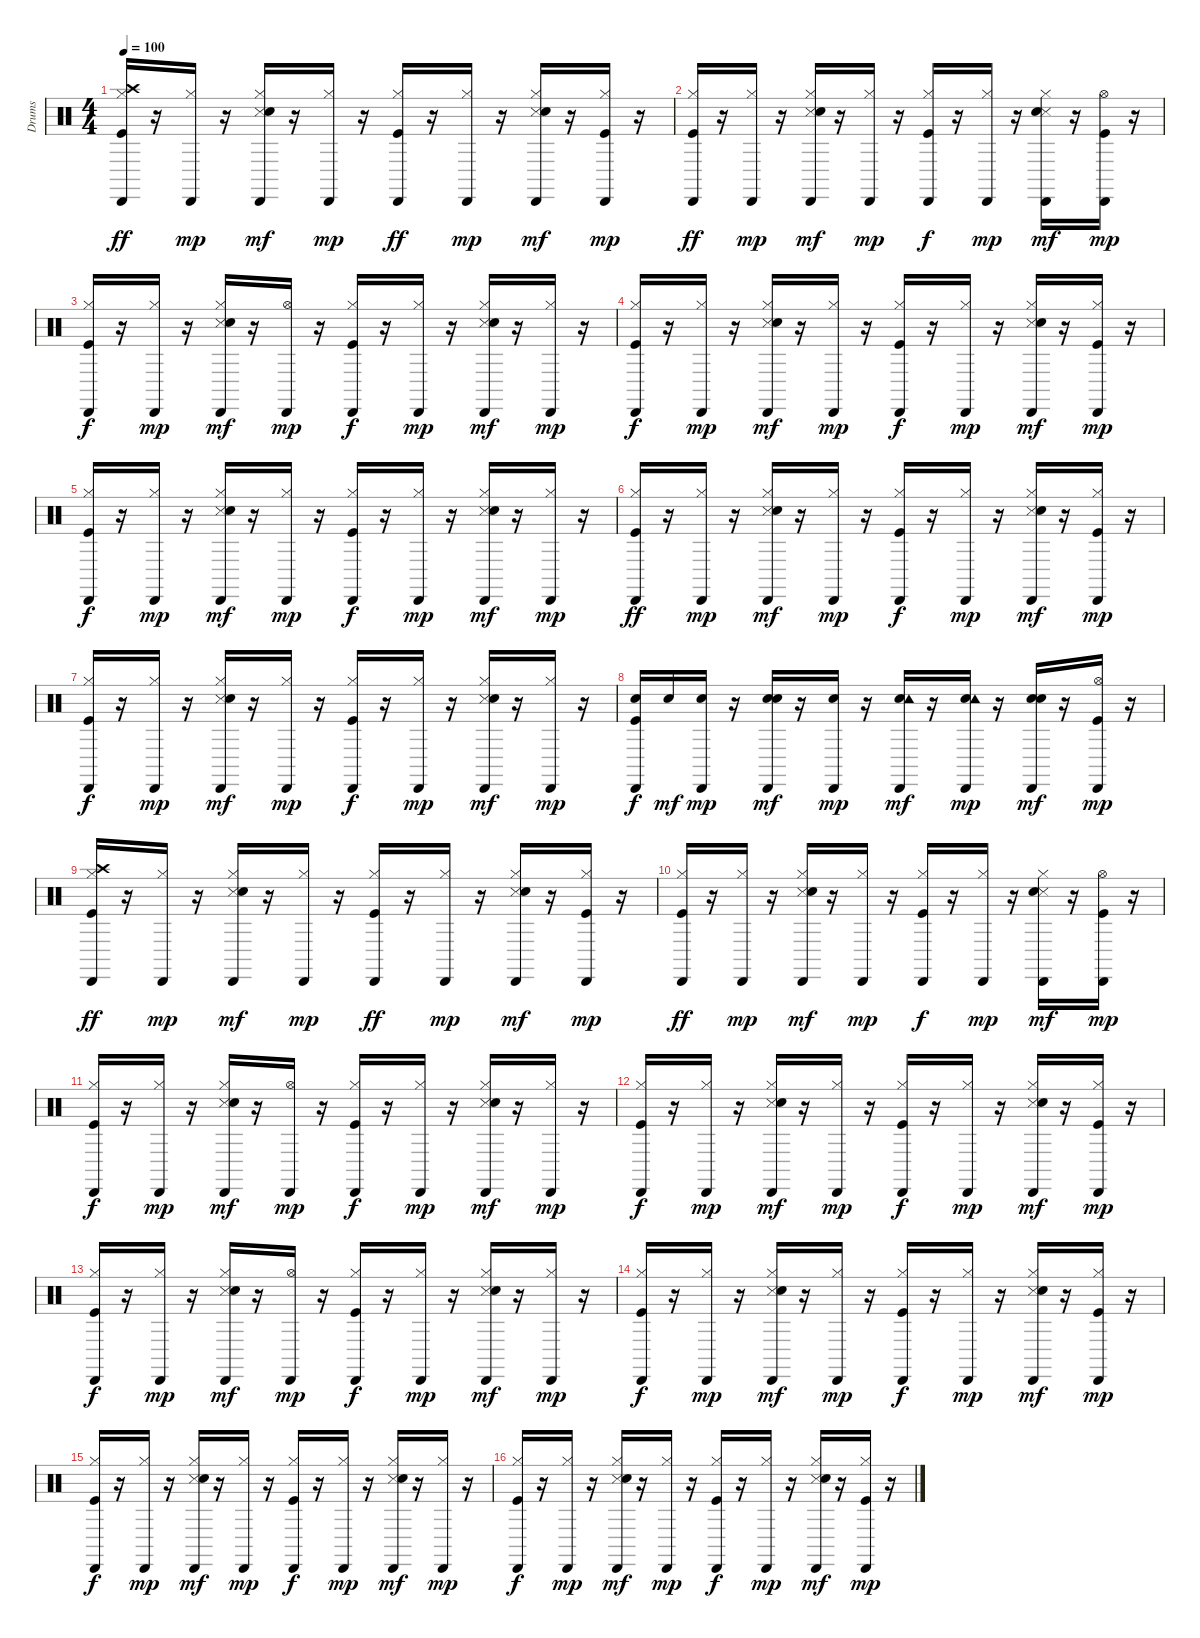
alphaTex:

\track ("Drums" "Drums") {instrument percussion}
\staff {score}
\articulation defaults
\ts (4 4)
\tempo 100
\clef neutral
\ks c
("Kick (hit)" "Hi-Hat (closed)" "Crash high (hit)" "Cabasa (hit)").16{dy ff} r.16 ("Hi-Hat (closed)" "Cabasa (hit)").16{dy mp} r.16 ("Hi-Hat (closed)" "Snare (side stick) 3" "Hand Clap (hit)" "Cabasa (hit)").16{dy mf} r.16 ("Hi-Hat (closed)" "Cabasa (hit)").16{dy mp} r.16 ("Kick (hit)" "Hi-Hat (closed)" "Cabasa (hit)").16{dy ff} r.16 ("Hi-Hat (closed)" "Cabasa (hit)").16{dy mp} r.16 ("Hi-Hat (closed)" "Snare (side stick) 3" "Hand Clap (hit)" "Cabasa (hit)").16{dy mf} r.16 ("Kick (hit)" "Hi-Hat (closed)" "Cabasa (hit)").16{dy mp} r.16 |
("Kick (hit)" "Hi-Hat (closed)" "Cabasa (hit)").16{dy ff} r.16 ("Hi-Hat (closed)" "Cabasa (hit)").16{dy mp} r.16 ("Hi-Hat (closed)" "Snare (side stick) 3" "Hand Clap (hit)" "Cabasa (hit)").16{dy mf} r.16 ("Hi-Hat (closed)" "Cabasa (hit)").16{dy mp} r.16 ("Kick (hit)" "Hi-Hat (closed)" "Cabasa (hit)").16{dy f} r.16 ("Hi-Hat (closed)" "Cabasa (hit)").16{dy mp} r.16 ("Hi-Hat (closed)" "Snare (side stick) 3" "Hand Clap (hit)" "Cabasa (hit)").16{dy mf} r.16 ("Kick (hit)" "Hi-Hat (open)" "Cabasa (hit)").16{dy mp} r.16 |
("Kick (hit)" "Hi-Hat (closed)" "Cabasa (hit)").16{dy f} r.16 ("Hi-Hat (closed)" "Cabasa (hit)").16{dy mp} r.16 ("Hi-Hat (closed)" "Snare (side stick) 3" "Hand Clap (hit)" "Cabasa (hit)").16{dy mf} r.16 ("Hi-Hat (open)" "Cabasa (hit)").16{dy mp} r.16 ("Kick (hit)" "Hi-Hat (closed)" "Cabasa (hit)").16{dy f} r.16 ("Hi-Hat (closed)" "Cabasa (hit)").16{dy mp} r.16 ("Hi-Hat (closed)" "Snare (side stick) 3" "Hand Clap (hit)" "Cabasa (hit)").16{dy mf} r.16 ("Hi-Hat (closed)" "Cabasa (hit)").16{dy mp} r.16 |
("Kick (hit)" "Hi-Hat (closed)" "Cabasa (hit)").16{dy f} r.16 ("Hi-Hat (closed)" "Cabasa (hit)").16{dy mp} r.16 ("Hi-Hat (closed)" "Snare (side stick) 3" "Hand Clap (hit)" "Cabasa (hit)").16{dy mf} r.16 ("Hi-Hat (closed)" "Cabasa (hit)").16{dy mp} r.16 ("Kick (hit)" "Hi-Hat (closed)" "Cabasa (hit)").16{dy f} r.16 ("Hi-Hat (closed)" "Cabasa (hit)").16{dy mp} r.16 ("Hi-Hat (closed)" "Snare (side stick) 3" "Hand Clap (hit)" "Cabasa (hit)").16{dy mf} r.16 ("Kick (hit)" "Hi-Hat (closed)" "Cabasa (hit)").16{dy mp} r.16 |
("Kick (hit)" "Hi-Hat (closed)" "Cabasa (hit)").16{dy f} r.16 ("Hi-Hat (closed)" "Cabasa (hit)").16{dy mp} r.16 ("Hi-Hat (closed)" "Snare (side stick) 3" "Hand Clap (hit)" "Cabasa (hit)").16{dy mf} r.16 ("Hi-Hat (closed)" "Cabasa (hit)").16{dy mp} r.16 ("Kick (hit)" "Hi-Hat (closed)" "Cabasa (hit)").16{dy f} r.16 ("Hi-Hat (closed)" "Cabasa (hit)").16{dy mp} r.16 ("Hi-Hat (closed)" "Snare (side stick) 3" "Hand Clap (hit)" "Cabasa (hit)").16{dy mf} r.16 ("Hi-Hat (closed)" "Cabasa (hit)").16{dy mp} r.16 |
("Kick (hit)" "Hi-Hat (closed)" "Cabasa (hit)").16{dy ff} r.16 ("Hi-Hat (closed)" "Cabasa (hit)").16{dy mp} r.16 ("Hi-Hat (closed)" "Snare (side stick) 3" "Hand Clap (hit)" "Cabasa (hit)").16{dy mf} r.16 ("Hi-Hat (closed)" "Cabasa (hit)").16{dy mp} r.16 ("Kick (hit)" "Hi-Hat (closed)" "Cabasa (hit)").16{dy f} r.16 ("Hi-Hat (closed)" "Cabasa (hit)").16{dy mp} r.16 ("Hi-Hat (closed)" "Snare (side stick) 3" "Hand Clap (hit)" "Cabasa (hit)").16{dy mf} r.16 ("Kick (hit)" "Hi-Hat (closed)" "Cabasa (hit)").16{dy mp} r.16 |
("Kick (hit)" "Hi-Hat (closed)" "Cabasa (hit)").16{dy f} r.16 ("Hi-Hat (closed)" "Cabasa (hit)").16{dy mp} r.16 ("Hi-Hat (closed)" "Snare (side stick) 3" "Hand Clap (hit)" "Cabasa (hit)").16{dy mf} r.16 ("Hi-Hat (closed)" "Cabasa (hit)").16{dy mp} r.16 ("Kick (hit)" "Hi-Hat (closed)" "Cabasa (hit)").16{dy f} r.16 ("Hi-Hat (closed)" "Cabasa (hit)").16{dy mp} r.16 ("Hi-Hat (closed)" "Snare (side stick) 3" "Hand Clap (hit)" "Cabasa (hit)").16{dy mf} r.16 ("Hi-Hat (closed)" "Cabasa (hit)").16{dy mp} r.16 |
("Kick (hit)" "Snare (hit) 2" "Cabasa (hit)").16{dy f} "Snare (hit) 2".16{dy mf} ("Snare (hit) 2" "Cabasa (hit)").16{dy mp} r.16 ("Snare (hit) 2" "Hand Clap (hit)" "Cabasa (hit)").16{dy mf} r.16 ("Snare (hit) 2" "Cabasa (hit)").16{dy mp} r.16 ("Snare (hit) 2" "Tambourine (hit)" "Cabasa (hit)").16{dy mf} r.16 ("Snare (hit) 2" "Tambourine (hit)" "Cabasa (hit)").16{dy mp} r.16 ("Snare (hit) 2" "Hand Clap (hit)" "Cabasa (hit)").16{dy mf} r.16 ("Kick (hit)" "Hi-Hat (open)" "Cabasa (hit)").16{dy mp} r.16 |
("Kick (hit)" "Hi-Hat (closed)" "Crash high (hit)" "Cabasa (hit)").16{dy ff} r.16 ("Hi-Hat (closed)" "Cabasa (hit)").16{dy mp} r.16 ("Hi-Hat (closed)" "Snare (side stick) 3" "Hand Clap (hit)" "Cabasa (hit)").16{dy mf} r.16 ("Hi-Hat (closed)" "Cabasa (hit)").16{dy mp} r.16 ("Kick (hit)" "Hi-Hat (closed)" "Cabasa (hit)").16{dy ff} r.16 ("Hi-Hat (closed)" "Cabasa (hit)").16{dy mp} r.16 ("Hi-Hat (closed)" "Snare (side stick) 3" "Hand Clap (hit)" "Cabasa (hit)").16{dy mf} r.16 ("Kick (hit)" "Hi-Hat (closed)" "Cabasa (hit)").16{dy mp} r.16 |
("Kick (hit)" "Hi-Hat (closed)" "Cabasa (hit)").16{dy ff} r.16 ("Hi-Hat (closed)" "Cabasa (hit)").16{dy mp} r.16 ("Hi-Hat (closed)" "Snare (side stick) 3" "Hand Clap (hit)" "Cabasa (hit)").16{dy mf} r.16 ("Hi-Hat (closed)" "Cabasa (hit)").16{dy mp} r.16 ("Kick (hit)" "Hi-Hat (closed)" "Cabasa (hit)").16{dy f} r.16 ("Hi-Hat (closed)" "Cabasa (hit)").16{dy mp} r.16 ("Hi-Hat (closed)" "Snare (side stick) 3" "Hand Clap (hit)" "Cabasa (hit)").16{dy mf} r.16 ("Kick (hit)" "Hi-Hat (open)" "Cabasa (hit)").16{dy mp} r.16 |
("Kick (hit)" "Hi-Hat (closed)" "Cabasa (hit)").16{dy f} r.16 ("Hi-Hat (closed)" "Cabasa (hit)").16{dy mp} r.16 ("Hi-Hat (closed)" "Snare (side stick) 3" "Hand Clap (hit)" "Cabasa (hit)").16{dy mf} r.16 ("Hi-Hat (open)" "Cabasa (hit)").16{dy mp} r.16 ("Kick (hit)" "Hi-Hat (closed)" "Cabasa (hit)").16{dy f} r.16 ("Hi-Hat (closed)" "Cabasa (hit)").16{dy mp} r.16 ("Hi-Hat (closed)" "Snare (side stick) 3" "Hand Clap (hit)" "Cabasa (hit)").16{dy mf} r.16 ("Hi-Hat (closed)" "Cabasa (hit)").16{dy mp} r.16 |
("Kick (hit)" "Hi-Hat (closed)" "Cabasa (hit)").16{dy f} r.16 ("Hi-Hat (closed)" "Cabasa (hit)").16{dy mp} r.16 ("Hi-Hat (closed)" "Snare (side stick) 3" "Hand Clap (hit)" "Cabasa (hit)").16{dy mf} r.16 ("Hi-Hat (closed)" "Cabasa (hit)").16{dy mp} r.16 ("Kick (hit)" "Hi-Hat (closed)" "Cabasa (hit)").16{dy f} r.16 ("Hi-Hat (closed)" "Cabasa (hit)").16{dy mp} r.16 ("Hi-Hat (closed)" "Snare (side stick) 3" "Hand Clap (hit)" "Cabasa (hit)").16{dy mf} r.16 ("Kick (hit)" "Hi-Hat (closed)" "Cabasa (hit)").16{dy mp} r.16 |
("Kick (hit)" "Hi-Hat (closed)" "Cabasa (hit)").16{dy f} r.16 ("Hi-Hat (closed)" "Cabasa (hit)").16{dy mp} r.16 ("Hi-Hat (closed)" "Snare (side stick) 3" "Hand Clap (hit)" "Cabasa (hit)").16{dy mf} r.16 ("Hi-Hat (open)" "Cabasa (hit)").16{dy mp} r.16 ("Kick (hit)" "Hi-Hat (closed)" "Cabasa (hit)").16{dy f} r.16 ("Hi-Hat (closed)" "Cabasa (hit)").16{dy mp} r.16 ("Hi-Hat (closed)" "Snare (side stick) 3" "Hand Clap (hit)" "Cabasa (hit)").16{dy mf} r.16 ("Hi-Hat (closed)" "Cabasa (hit)").16{dy mp} r.16 |
("Kick (hit)" "Hi-Hat (closed)" "Cabasa (hit)").16{dy f} r.16 ("Hi-Hat (closed)" "Cabasa (hit)").16{dy mp} r.16 ("Hi-Hat (closed)" "Snare (side stick) 3" "Hand Clap (hit)" "Cabasa (hit)").16{dy mf} r.16 ("Hi-Hat (closed)" "Cabasa (hit)").16{dy mp} r.16 ("Kick (hit)" "Hi-Hat (closed)" "Cabasa (hit)").16{dy f} r.16 ("Hi-Hat (closed)" "Cabasa (hit)").16{dy mp} r.16 ("Hi-Hat (closed)" "Snare (side stick) 3" "Hand Clap (hit)" "Cabasa (hit)").16{dy mf} r.16 ("Kick (hit)" "Hi-Hat (closed)" "Cabasa (hit)").16{dy mp} r.16 |
("Kick (hit)" "Hi-Hat (closed)" "Cabasa (hit)").16{dy f} r.16 ("Hi-Hat (closed)" "Cabasa (hit)").16{dy mp} r.16 ("Hi-Hat (closed)" "Snare (side stick) 3" "Hand Clap (hit)" "Cabasa (hit)").16{dy mf} r.16 ("Hi-Hat (closed)" "Cabasa (hit)").16{dy mp} r.16 ("Kick (hit)" "Hi-Hat (closed)" "Cabasa (hit)").16{dy f} r.16 ("Hi-Hat (closed)" "Cabasa (hit)").16{dy mp} r.16 ("Hi-Hat (closed)" "Snare (side stick) 3" "Hand Clap (hit)" "Cabasa (hit)").16{dy mf} r.16 ("Hi-Hat (closed)" "Cabasa (hit)").16{dy mp} r.16 |
("Kick (hit)" "Hi-Hat (closed)" "Cabasa (hit)").16{dy f} r.16 ("Hi-Hat (closed)" "Cabasa (hit)").16{dy mp} r.16 ("Hi-Hat (closed)" "Snare (side stick) 3" "Hand Clap (hit)" "Cabasa (hit)").16{dy mf} r.16 ("Hi-Hat (closed)" "Cabasa (hit)").16{dy mp} r.16 ("Kick (hit)" "Hi-Hat (closed)" "Cabasa (hit)").16{dy f} r.16 ("Hi-Hat (closed)" "Cabasa (hit)").16{dy mp} r.16 ("Hi-Hat (closed)" "Snare (side stick) 3" "Hand Clap (hit)" "Cabasa (hit)").16{dy mf} r.16 ("Kick (hit)" "Hi-Hat (closed)" "Cabasa (hit)").16{dy mp} r.16
